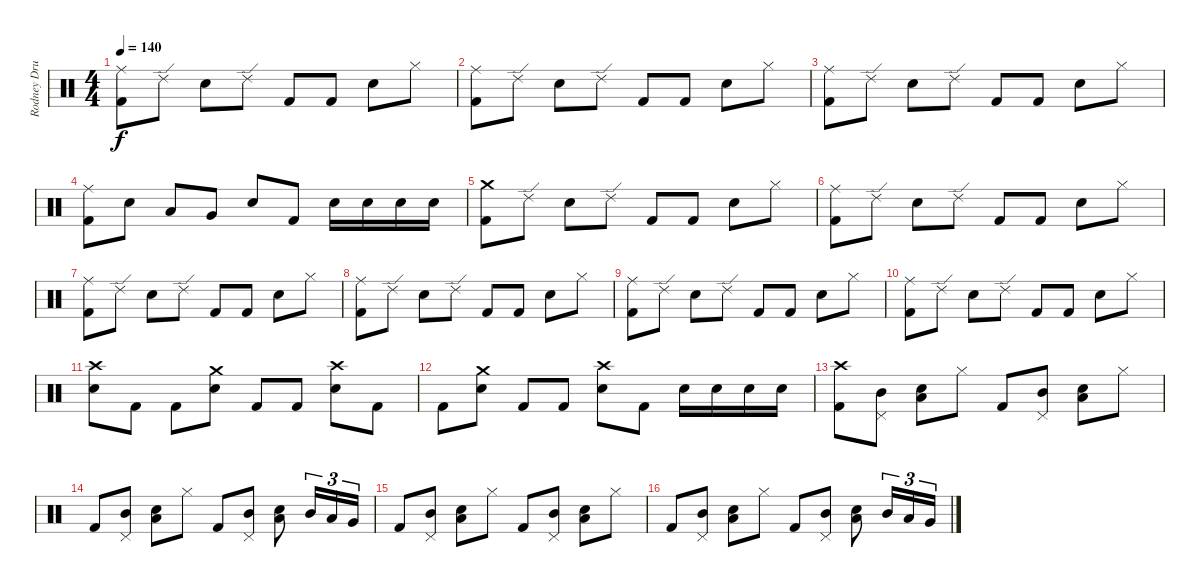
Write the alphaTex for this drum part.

\track ("Rodney Drums" "Rodney Dru") {instrument percussion}
\staff {score}
\articulation defaults
\ts (4 4)
\tempo 140
\clef neutral
\ks c
("Ride (middle)" "Kick (hit) 2").8{dy f} "Ride (edge) 2".8 "Electric Snare (hit)".8 "Ride (edge) 2".8 "Kick (hit) 2".8 "Kick (hit) 2".8 "Electric Snare (hit)".8 "Hi-Hat (closed)".8 |
("Ride (middle)" "Kick (hit) 2").8 "Ride (edge) 2".8 "Electric Snare (hit)".8 "Ride (edge) 2".8 "Kick (hit) 2".8 "Kick (hit) 2".8 "Electric Snare (hit)".8 "Hi-Hat (closed)".8 |
("Ride (middle)" "Kick (hit) 2").8 "Ride (edge) 2".8 "Electric Snare (hit)".8 "Ride (edge) 2".8 "Kick (hit) 2".8 "Kick (hit) 2".8 "Electric Snare (hit)".8 "Hi-Hat (closed)".8 |
("Ride (middle)" "Kick (hit) 2").8 "Electric Snare (hit)".8 "Low Tom (hit)".8 "Very Low Tom (hit)".8 "Electric Snare (hit)".8 "Kick (hit) 2".8 "Electric Snare (hit)".16 "Electric Snare (hit)".16 "Electric Snare (hit)".16 "Electric Snare (hit)".16 |
("Crash medium (hit)" "Kick (hit) 2").8 "Ride (edge) 2".8 "Electric Snare (hit)".8 "Ride (edge) 2".8 "Kick (hit) 2".8 "Kick (hit) 2".8 "Electric Snare (hit)".8 "Hi-Hat (closed)".8 |
("Ride (middle)" "Kick (hit) 2").8 "Ride (edge) 2".8 "Electric Snare (hit)".8 "Ride (edge) 2".8 "Kick (hit) 2".8 "Kick (hit) 2".8 "Electric Snare (hit)".8 "Hi-Hat (closed)".8 |
("Ride (middle)" "Kick (hit) 2").8 "Ride (edge) 2".8 "Electric Snare (hit)".8 "Ride (edge) 2".8 "Kick (hit) 2".8 "Kick (hit) 2".8 "Electric Snare (hit)".8 "Hi-Hat (closed)".8 |
("Ride (middle)" "Kick (hit) 2").8 "Ride (edge) 2".8 "Electric Snare (hit)".8 "Ride (edge) 2".8 "Kick (hit) 2".8 "Kick (hit) 2".8 "Electric Snare (hit)".8 "Hi-Hat (closed)".8 |
("Ride (middle)" "Kick (hit) 2").8 "Ride (edge) 2".8 "Electric Snare (hit)".8 "Ride (edge) 2".8 "Kick (hit) 2".8 "Kick (hit) 2".8 "Electric Snare (hit)".8 "Hi-Hat (closed)".8 |
("Ride (middle)" "Kick (hit) 2").8 "Ride (edge) 2".8 "Electric Snare (hit)".8 "Ride (edge) 2".8 "Kick (hit) 2".8 "Kick (hit) 2".8 "Electric Snare (hit)".8 "Hi-Hat (closed)".8 |
("Crash high (hit)" "Electric Snare (hit)").8 "Kick (hit) 2".8 "Kick (hit) 2".8 ("Crash medium (hit)" "Electric Snare (hit)").8 "Kick (hit) 2".8 "Kick (hit) 2".8 ("Crash high (hit)" "Electric Snare (hit)").8 "Kick (hit) 2".8 |
"Kick (hit) 2".8 ("Crash medium (hit)" "Electric Snare (hit)").8 "Kick (hit) 2".8 "Kick (hit) 2".8 ("Crash high (hit)" "Electric Snare (hit)").8 "Kick (hit) 2".8 "Electric Snare (hit)".16 "Electric Snare (hit)".16 "Electric Snare (hit)".16 "Electric Snare (hit)".16 |
("Crash high (hit)" "Kick (hit) 2").8 ("Pedal Hi-Hat (hit)" "Mid Tom (hit)").8 ("Electric Snare (hit)" "Low Tom (hit)").8 "Hi-Hat (closed)".8 "Kick (hit) 2".8 ("Pedal Hi-Hat (hit)" "Mid Tom (hit)").8 ("Electric Snare (hit)" "Low Tom (hit)").8 "Hi-Hat (closed)".8 |
"Kick (hit) 2".8 ("Pedal Hi-Hat (hit)" "Mid Tom (hit)").8 ("Electric Snare (hit)" "Low Tom (hit)").8 "Hi-Hat (closed)".8 "Kick (hit) 2".8 ("Pedal Hi-Hat (hit)" "Mid Tom (hit)").8 ("Electric Snare (hit)" "Low Tom (hit)").8 "Mid Tom (hit)".16{tu (3 2)} "Low Tom (hit)".16{tu (3 2)} "Very Low Tom (hit)".16{tu (3 2)} |
"Kick (hit) 2".8 ("Pedal Hi-Hat (hit)" "Mid Tom (hit)").8 ("Electric Snare (hit)" "Low Tom (hit)").8 "Hi-Hat (closed)".8 "Kick (hit) 2".8 ("Pedal Hi-Hat (hit)" "Mid Tom (hit)").8 ("Electric Snare (hit)" "Low Tom (hit)").8 "Hi-Hat (closed)".8 |
"Kick (hit) 2".8 ("Pedal Hi-Hat (hit)" "Mid Tom (hit)").8 ("Electric Snare (hit)" "Low Tom (hit)").8 "Hi-Hat (closed)".8 "Kick (hit) 2".8 ("Pedal Hi-Hat (hit)" "Mid Tom (hit)").8 ("Electric Snare (hit)" "Low Tom (hit)").8 "Mid Tom (hit)".16{tu (3 2)} "Low Tom (hit)".16{tu (3 2)} "Very Low Tom (hit)".16{tu (3 2)}
